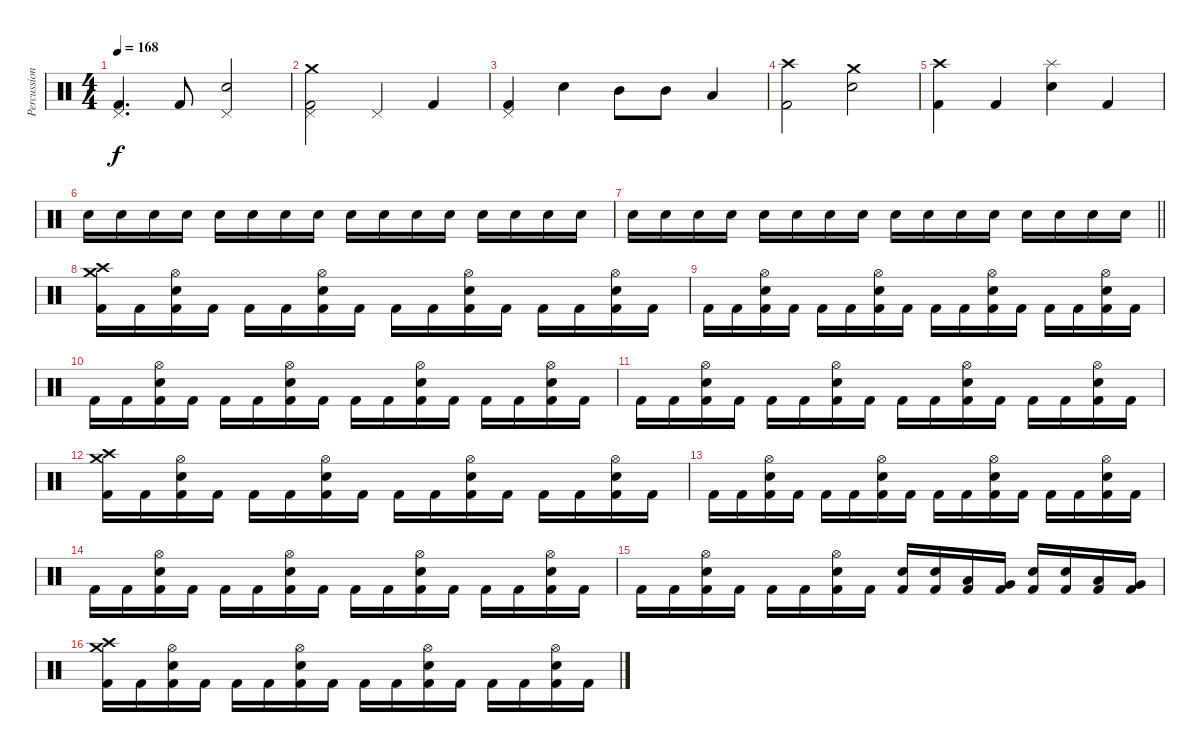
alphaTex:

\track ("Percussions" "Percussion") {instrument percussion}
\staff {score}
\articulation defaults
\ts (4 4)
\tempo 168
\clef neutral
\ks c
("Pedal Hi-Hat (hit)" "Kick (hit) 2").4{d dy f} "Kick (hit) 2".8 ("Pedal Hi-Hat (hit)" "Snare (hit) 2").2 |
("Crash medium (hit)" "Pedal Hi-Hat (hit)" "Kick (hit) 2").2 "Pedal Hi-Hat (hit)".4 "Kick (hit) 2".4 |
("Pedal Hi-Hat (hit)" "Kick (hit) 2").4 "Snare (hit) 2".4 "Mid Tom (hit)".8 "Mid Tom (hit)".8 "Low Tom (hit)".4 |
("Crash high (hit)" "Kick (hit) 2").2 ("Crash medium (hit)" "Snare (hit) 2").2 |
("Crash high (hit)" "Kick (hit) 2").4 "Kick (hit) 2".4 ("Splash (hit)" "Snare (hit) 2").4 "Kick (hit) 2".4 |
"Snare (hit) 2".16{volume 7} "Snare (hit) 2".16 "Snare (hit) 2".16 "Snare (hit) 2".16 "Snare (hit) 2".16 "Snare (hit) 2".16 "Snare (hit) 2".16 "Snare (hit) 2".16 "Snare (hit) 2".16 "Snare (hit) 2".16 "Snare (hit) 2".16 "Snare (hit) 2".16 "Snare (hit) 2".16 "Snare (hit) 2".16 "Snare (hit) 2".16 "Snare (hit) 2".16 |
\barLineRight lightlight "Snare (hit) 2".16{volume 7} "Snare (hit) 2".16{volume 16} "Snare (hit) 2".16 "Snare (hit) 2".16 "Snare (hit) 2".16 "Snare (hit) 2".16 "Snare (hit) 2".16 "Snare (hit) 2".16 "Snare (hit) 2".16 "Snare (hit) 2".16 "Snare (hit) 2".16 "Snare (hit) 2".16 "Snare (hit) 2".16 "Snare (hit) 2".16 "Snare (hit) 2".16 "Snare (hit) 2".16
|
("Crash medium (hit)" "Crash high (hit)" "Kick (hit) 2").16 "Kick (hit) 2".16 ("Hi-Hat (open)" "Snare (hit) 2" "Kick (hit) 2").16 "Kick (hit) 2".16 "Kick (hit) 2".16 "Kick (hit) 2".16 ("Hi-Hat (open)" "Snare (hit) 2" "Kick (hit) 2").16 "Kick (hit) 2".16 "Kick (hit) 2".16 "Kick (hit) 2".16 ("Hi-Hat (open)" "Snare (hit) 2" "Kick (hit) 2").16 "Kick (hit) 2".16 "Kick (hit) 2".16 "Kick (hit) 2".16 ("Hi-Hat (open)" "Snare (hit) 2" "Kick (hit) 2").16 "Kick (hit) 2".16 |
"Kick (hit) 2".16 "Kick (hit) 2".16 ("Hi-Hat (open)" "Snare (hit) 2" "Kick (hit) 2").16 "Kick (hit) 2".16 "Kick (hit) 2".16 "Kick (hit) 2".16 ("Hi-Hat (open)" "Snare (hit) 2" "Kick (hit) 2").16 "Kick (hit) 2".16 "Kick (hit) 2".16 "Kick (hit) 2".16 ("Hi-Hat (open)" "Snare (hit) 2" "Kick (hit) 2").16 "Kick (hit) 2".16 "Kick (hit) 2".16 "Kick (hit) 2".16 ("Hi-Hat (open)" "Snare (hit) 2" "Kick (hit) 2").16 "Kick (hit) 2".16 |
"Kick (hit) 2".16 "Kick (hit) 2".16 ("Hi-Hat (open)" "Snare (hit) 2" "Kick (hit) 2").16 "Kick (hit) 2".16 "Kick (hit) 2".16 "Kick (hit) 2".16 ("Hi-Hat (open)" "Snare (hit) 2" "Kick (hit) 2").16 "Kick (hit) 2".16 "Kick (hit) 2".16 "Kick (hit) 2".16 ("Hi-Hat (open)" "Snare (hit) 2" "Kick (hit) 2").16 "Kick (hit) 2".16 "Kick (hit) 2".16 "Kick (hit) 2".16 ("Hi-Hat (open)" "Snare (hit) 2" "Kick (hit) 2").16 "Kick (hit) 2".16 |
"Kick (hit) 2".16 "Kick (hit) 2".16 ("Hi-Hat (open)" "Snare (hit) 2" "Kick (hit) 2").16 "Kick (hit) 2".16 "Kick (hit) 2".16 "Kick (hit) 2".16 ("Hi-Hat (open)" "Snare (hit) 2" "Kick (hit) 2").16 "Kick (hit) 2".16 "Kick (hit) 2".16 "Kick (hit) 2".16 ("Hi-Hat (open)" "Snare (hit) 2" "Kick (hit) 2").16 "Kick (hit) 2".16 "Kick (hit) 2".16 "Kick (hit) 2".16 ("Hi-Hat (open)" "Snare (hit) 2" "Kick (hit) 2").16 "Kick (hit) 2".16 |
("Crash medium (hit)" "Crash high (hit)" "Kick (hit) 2").16 "Kick (hit) 2".16 ("Hi-Hat (open)" "Snare (hit) 2" "Kick (hit) 2").16 "Kick (hit) 2".16 "Kick (hit) 2".16 "Kick (hit) 2".16 ("Hi-Hat (open)" "Snare (hit) 2" "Kick (hit) 2").16 "Kick (hit) 2".16 "Kick (hit) 2".16 "Kick (hit) 2".16 ("Hi-Hat (open)" "Snare (hit) 2" "Kick (hit) 2").16 "Kick (hit) 2".16 "Kick (hit) 2".16 "Kick (hit) 2".16 ("Hi-Hat (open)" "Snare (hit) 2" "Kick (hit) 2").16 "Kick (hit) 2".16 |
"Kick (hit) 2".16 "Kick (hit) 2".16 ("Hi-Hat (open)" "Snare (hit) 2" "Kick (hit) 2").16 "Kick (hit) 2".16 "Kick (hit) 2".16 "Kick (hit) 2".16 ("Hi-Hat (open)" "Snare (hit) 2" "Kick (hit) 2").16 "Kick (hit) 2".16 "Kick (hit) 2".16 "Kick (hit) 2".16 ("Hi-Hat (open)" "Snare (hit) 2" "Kick (hit) 2").16 "Kick (hit) 2".16 "Kick (hit) 2".16 "Kick (hit) 2".16 ("Hi-Hat (open)" "Snare (hit) 2" "Kick (hit) 2").16 "Kick (hit) 2".16 |
"Kick (hit) 2".16 "Kick (hit) 2".16 ("Hi-Hat (open)" "Snare (hit) 2" "Kick (hit) 2").16 "Kick (hit) 2".16 "Kick (hit) 2".16 "Kick (hit) 2".16 ("Hi-Hat (open)" "Snare (hit) 2" "Kick (hit) 2").16 "Kick (hit) 2".16 "Kick (hit) 2".16 "Kick (hit) 2".16 ("Hi-Hat (open)" "Snare (hit) 2" "Kick (hit) 2").16 "Kick (hit) 2".16 "Kick (hit) 2".16 "Kick (hit) 2".16 ("Hi-Hat (open)" "Snare (hit) 2" "Kick (hit) 2").16 "Kick (hit) 2".16 |
"Kick (hit) 2".16 "Kick (hit) 2".16 ("Hi-Hat (open)" "Snare (hit) 2" "Kick (hit) 2").16 "Kick (hit) 2".16 "Kick (hit) 2".16 "Kick (hit) 2".16 ("Hi-Hat (open)" "Snare (hit) 2" "Kick (hit) 2").16 "Kick (hit) 2".16 ("Snare (hit) 2" "Kick (hit) 2").16 ("Snare (hit) 2" "Kick (hit) 2").16 ("Low Tom (hit)" "Kick (hit) 2").16 ("Very Low Tom (hit)" "Kick (hit) 2").16 ("Snare (hit) 2" "Kick (hit) 2").16 ("Snare (hit) 2" "Kick (hit) 2").16 ("Low Tom (hit)" "Kick (hit) 2").16 ("Very Low Tom (hit)" "Kick (hit) 2").16 |
("Crash medium (hit)" "Crash high (hit)" "Kick (hit) 2").16 "Kick (hit) 2".16 ("Hi-Hat (open)" "Snare (hit) 2" "Kick (hit) 2").16 "Kick (hit) 2".16 "Kick (hit) 2".16 "Kick (hit) 2".16 ("Hi-Hat (open)" "Snare (hit) 2" "Kick (hit) 2").16 "Kick (hit) 2".16 "Kick (hit) 2".16 "Kick (hit) 2".16 ("Hi-Hat (open)" "Snare (hit) 2" "Kick (hit) 2").16 "Kick (hit) 2".16 "Kick (hit) 2".16 "Kick (hit) 2".16 ("Hi-Hat (open)" "Snare (hit) 2" "Kick (hit) 2").16 "Kick (hit) 2".16
